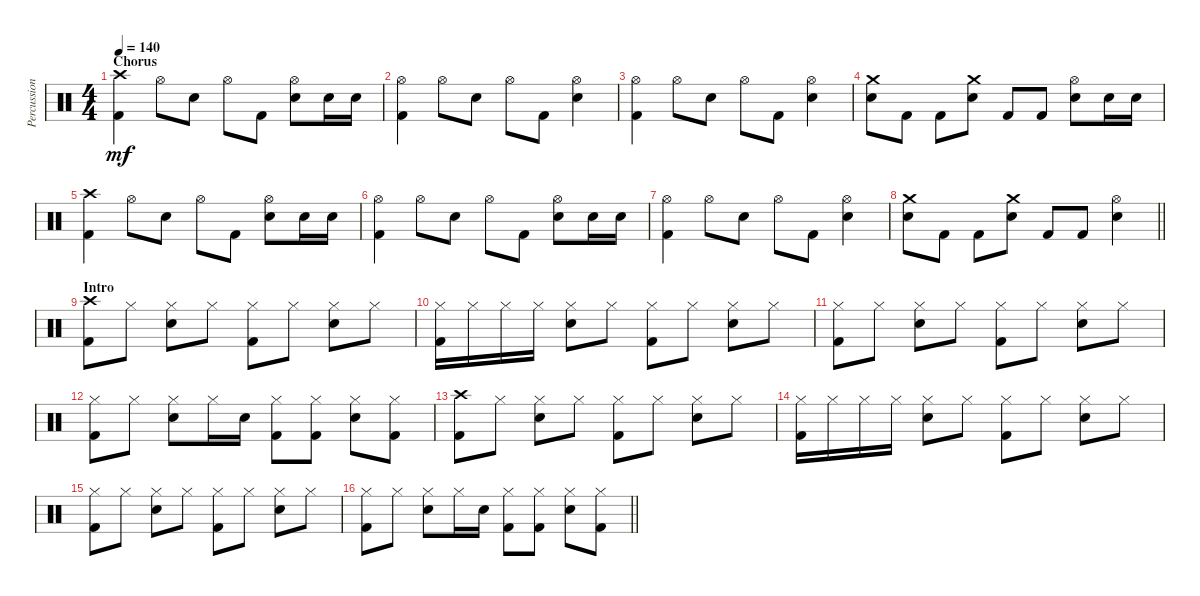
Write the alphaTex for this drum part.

\track ("Percussion" "Percussion") {instrument percussion}
\staff {score}
\articulation defaults
\ts (4 4)
\section ("" "Chorus")
\tempo 140
\clef neutral
\ks c
("Crash high (hit)" "Kick (hit) 2").4{dy mf} "Hi-Hat (open)".8 "Snare (hit) 2".8 "Hi-Hat (open)".8 "Kick (hit) 2".8 ("Hi-Hat (open)" "Snare (hit) 2").8 "Snare (hit) 2".16 "Snare (hit) 2".16 |
("Hi-Hat (open)" "Kick (hit) 2").4 "Hi-Hat (open)".8 "Snare (hit) 2".8 "Hi-Hat (open)".8 "Kick (hit) 2".8 ("Hi-Hat (open)" "Snare (hit) 2").4 |
("Hi-Hat (open)" "Kick (hit) 2").4 "Hi-Hat (open)".8 "Snare (hit) 2".8 "Hi-Hat (open)".8 "Kick (hit) 2".8 ("Hi-Hat (open)" "Snare (hit) 2").4 |
("Crash medium (hit)" "Snare (hit) 2").8 "Kick (hit) 2".8 "Kick (hit) 2".8 ("Crash medium (hit)" "Snare (hit) 2").8 "Kick (hit) 2".8 "Kick (hit) 2".8 ("Hi-Hat (open)" "Snare (hit) 2").8 "Snare (hit) 2".16 "Snare (hit) 2".16 |
("Crash high (hit)" "Kick (hit) 2").4 "Hi-Hat (open)".8 "Snare (hit) 2".8 "Hi-Hat (open)".8 "Kick (hit) 2".8 ("Hi-Hat (open)" "Snare (hit) 2").8 "Snare (hit) 2".16 "Snare (hit) 2".16 |
("Hi-Hat (open)" "Kick (hit) 2").4 "Hi-Hat (open)".8 "Snare (hit) 2".8 "Hi-Hat (open)".8 "Kick (hit) 2".8 ("Hi-Hat (open)" "Snare (hit) 2").8 "Snare (hit) 2".16 "Snare (hit) 2".16 |
("Hi-Hat (open)" "Kick (hit) 2").4 "Hi-Hat (open)".8 "Snare (hit) 2".8 "Hi-Hat (open)".8 "Kick (hit) 2".8 ("Hi-Hat (open)" "Snare (hit) 2").4 |
\barLineRight lightlight
("Crash medium (hit)" "Snare (hit) 2").8 "Kick (hit) 2".8 "Kick (hit) 2".8 ("Crash medium (hit)" "Snare (hit) 2").8 "Kick (hit) 2".8 "Kick (hit) 2".8 ("Hi-Hat (open)" "Snare (hit) 2").4 |
\section ("" "Intro")
("Crash high (hit)" "Kick (hit) 2").8 "Hi-Hat (closed)".8 ("Hi-Hat (closed)" "Snare (hit) 2").8 "Hi-Hat (closed)".8 ("Hi-Hat (closed)" "Kick (hit) 2").8 "Hi-Hat (closed)".8 ("Hi-Hat (closed)" "Snare (hit) 2").8 "Hi-Hat (closed)".8 |
("Hi-Hat (closed)" "Kick (hit) 2").16 "Hi-Hat (closed)".16 "Hi-Hat (closed)".16 "Hi-Hat (closed)".16 ("Hi-Hat (closed)" "Snare (hit) 2").8 "Hi-Hat (closed)".8 ("Hi-Hat (closed)" "Kick (hit) 2").8 "Hi-Hat (closed)".8 ("Hi-Hat (closed)" "Snare (hit) 2").8 "Hi-Hat (closed)".8 |
("Hi-Hat (closed)" "Kick (hit) 2").8 "Hi-Hat (closed)".8 ("Hi-Hat (closed)" "Snare (hit) 2").8 "Hi-Hat (closed)".8 ("Hi-Hat (closed)" "Kick (hit) 2").8 "Hi-Hat (closed)".8 ("Hi-Hat (closed)" "Snare (hit) 2").8 "Hi-Hat (closed)".8 |
("Hi-Hat (closed)" "Kick (hit) 2").8 "Hi-Hat (closed)".8 ("Hi-Hat (closed)" "Snare (hit) 2").8 "Hi-Hat (closed)".16 "Snare (hit) 2".16 ("Hi-Hat (closed)" "Kick (hit) 2").8 ("Hi-Hat (closed)" "Kick (hit) 2").8 ("Hi-Hat (closed)" "Snare (hit) 2").8 ("Hi-Hat (closed)" "Kick (hit) 2").8 |
("Crash high (hit)" "Kick (hit) 2").8 "Hi-Hat (closed)".8 ("Hi-Hat (closed)" "Snare (hit) 2").8 "Hi-Hat (closed)".8 ("Hi-Hat (closed)" "Kick (hit) 2").8 "Hi-Hat (closed)".8 ("Hi-Hat (closed)" "Snare (hit) 2").8 "Hi-Hat (closed)".8 |
("Hi-Hat (closed)" "Kick (hit) 2").16 "Hi-Hat (closed)".16 "Hi-Hat (closed)".16 "Hi-Hat (closed)".16 ("Hi-Hat (closed)" "Snare (hit) 2").8 "Hi-Hat (closed)".8 ("Hi-Hat (closed)" "Kick (hit) 2").8 "Hi-Hat (closed)".8 ("Hi-Hat (closed)" "Snare (hit) 2").8 "Hi-Hat (closed)".8 |
("Hi-Hat (closed)" "Kick (hit) 2").8 "Hi-Hat (closed)".8 ("Hi-Hat (closed)" "Snare (hit) 2").8 "Hi-Hat (closed)".8 ("Hi-Hat (closed)" "Kick (hit) 2").8 "Hi-Hat (closed)".8 ("Hi-Hat (closed)" "Snare (hit) 2").8 "Hi-Hat (closed)".8 |
\barLineRight lightlight
("Hi-Hat (closed)" "Kick (hit) 2").8 "Hi-Hat (closed)".8 ("Hi-Hat (closed)" "Snare (hit) 2").8 "Hi-Hat (closed)".16 "Snare (hit) 2".16 ("Hi-Hat (closed)" "Kick (hit) 2").8 ("Hi-Hat (closed)" "Kick (hit) 2").8 ("Hi-Hat (closed)" "Snare (hit) 2").8 ("Hi-Hat (closed)" "Kick (hit) 2").8
